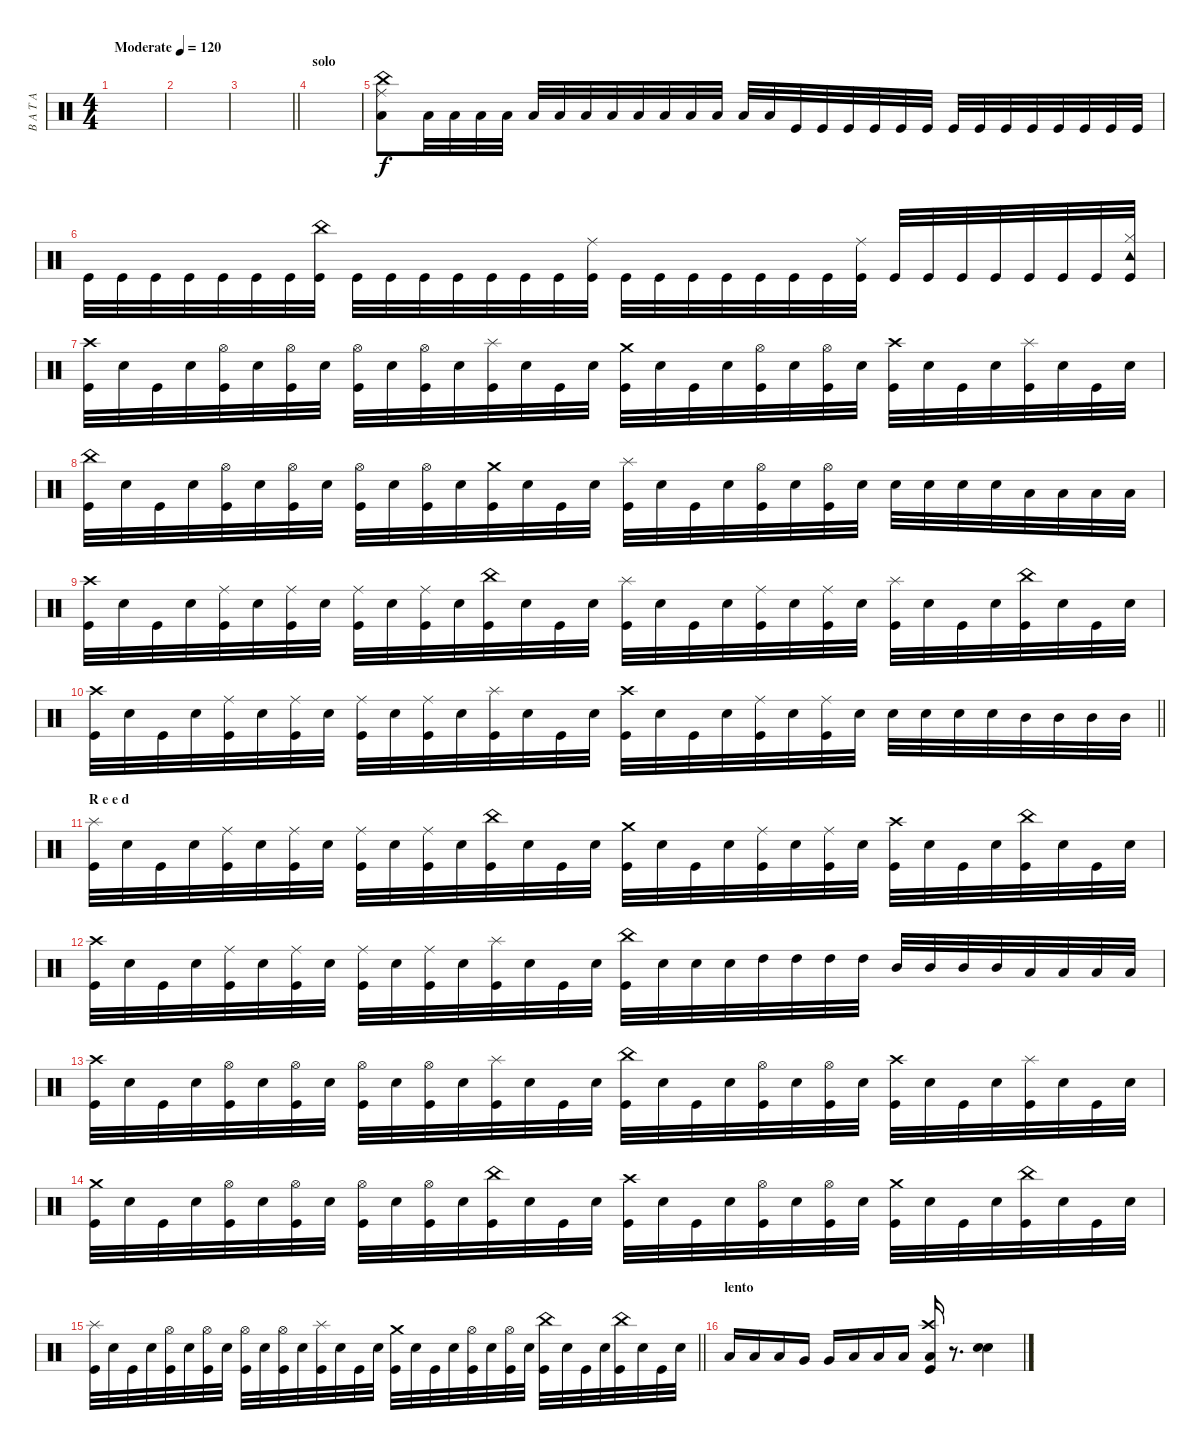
\track ("B A T A " "B A T A ") {instrument percussion}
\staff {score}
\articulation defaults
\ts (4 4)
\tempo (120 "Moderate")
\clef neutral
\ks c
|
|
\barLineRight lightlight
|
\section ("" "solo")
|
("China (hit)" "Ride (middle)" "Low Floor Tom (hit)").8 "Low Floor Tom (hit)".32 "Low Floor Tom (hit)".32 "Low Floor Tom (hit)".32 "Low Floor Tom (hit)".32 "Low Floor Tom (hit)".32 "Low Floor Tom (hit)".32 "Low Floor Tom (hit)".32 "Low Floor Tom (hit)".32 "Low Floor Tom (hit)".32 "Low Floor Tom (hit)".32 "Low Floor Tom (hit)".32 "Low Floor Tom (hit)".32 "Low Floor Tom (hit)".32 "Low Floor Tom (hit)".32 "Kick (hit)".32 "Kick (hit)".32 "Kick (hit)".32 "Kick (hit)".32 "Kick (hit)".32 "Kick (hit)".32 "Kick (hit)".32 "Kick (hit)".32 "Kick (hit)".32 "Kick (hit)".32 "Kick (hit)".32 "Kick (hit)".32 "Kick (hit)".32 "Kick (hit)".32 |
"Kick (hit)".32 "Kick (hit)".32 "Kick (hit)".32 "Kick (hit)".32 "Kick (hit)".32 "Kick (hit)".32 "Kick (hit)".32 ("China (hit)" "Kick (hit)").32 "Kick (hit)".32 "Kick (hit)".32 "Kick (hit)".32 "Kick (hit)".32 "Kick (hit)".32 "Kick (hit)".32 "Kick (hit)".32 ("Ride (middle)" "Kick (hit)").32 "Kick (hit)".32 "Kick (hit)".32 "Kick (hit)".32 "Kick (hit)".32 "Kick (hit)".32 "Kick (hit)".32 "Kick (hit)".32 ("Ride (middle)" "Kick (hit)").32 "Kick (hit)".32 "Kick (hit)".32 "Kick (hit)".32 "Kick (hit)".32 "Kick (hit)".32 "Kick (hit)".32 "Kick (hit)".32 ("Hi-Hat (closed)" "Tambourine (hit)" "Kick (hit)").32 |
("Crash high (hit)" "Kick (hit)").32 "Electric Snare (hit)".32 "Kick (hit)".32 "Electric Snare (hit)".32 ("Hi-Hat (open)" "Kick (hit)").32 "Electric Snare (hit)".32 ("Hi-Hat (open)" "Kick (hit)").32 "Electric Snare (hit)".32 ("Hi-Hat (open)" "Kick (hit)").32 "Electric Snare (hit)".32 ("Hi-Hat (open)" "Kick (hit)").32 "Electric Snare (hit)".32 ("Splash (hit)" "Kick (hit)").32 "Electric Snare (hit)".32 "Kick (hit)".32 "Electric Snare (hit)".32 ("Crash medium (hit)" "Kick (hit)").32 "Electric Snare (hit)".32 "Kick (hit)".32 "Electric Snare (hit)".32 ("Hi-Hat (open)" "Kick (hit)").32 "Electric Snare (hit)".32 ("Hi-Hat (open)" "Kick (hit)").32 "Electric Snare (hit)".32 ("Crash high (hit)" "Kick (hit)").32 "Electric Snare (hit)".32 "Kick (hit)".32 "Electric Snare (hit)".32 ("Splash (hit)" "Kick (hit)").32 "Electric Snare (hit)".32 "Kick (hit)".32 "Electric Snare (hit)".32 |
("China (hit)" "Kick (hit)").32 "Electric Snare (hit)".32 "Kick (hit)".32 "Electric Snare (hit)".32 ("Hi-Hat (open)" "Kick (hit)").32 "Electric Snare (hit)".32 ("Hi-Hat (open)" "Kick (hit)").32 "Electric Snare (hit)".32 ("Hi-Hat (open)" "Kick (hit)").32 "Electric Snare (hit)".32 ("Hi-Hat (open)" "Kick (hit)").32 "Electric Snare (hit)".32 ("Crash medium (hit)" "Kick (hit)").32 "Electric Snare (hit)".32 "Kick (hit)".32 "Electric Snare (hit)".32 ("Splash (hit)" "Kick (hit)").32 "Electric Snare (hit)".32 "Kick (hit)".32 "Electric Snare (hit)".32 ("Hi-Hat (open)" "Kick (hit)").32 "Electric Snare (hit)".32 ("Hi-Hat (open)" "Kick (hit)").32 "Electric Snare (hit)".32 "Electric Snare (hit)".32 "Electric Snare (hit)".32 "Electric Snare (hit)".32 "Electric Snare (hit)".32 "Low Tom (hit)".32 "Low Tom (hit)".32 "Low Tom (hit)".32 "Low Tom (hit)".32 |
("Crash high (hit)" "Kick (hit)").32 "Electric Snare (hit)".32 "Kick (hit)".32 "Electric Snare (hit)".32 ("Ride (middle)" "Kick (hit)").32 "Electric Snare (hit)".32 ("Ride (middle)" "Kick (hit)").32 "Electric Snare (hit)".32 ("Ride (middle)" "Kick (hit)").32 "Electric Snare (hit)".32 ("Ride (middle)" "Kick (hit)").32 "Electric Snare (hit)".32 ("China (hit)" "Kick (hit)").32 "Electric Snare (hit)".32 "Kick (hit)".32 "Electric Snare (hit)".32 ("Splash (hit)" "Kick (hit)").32 "Electric Snare (hit)".32 "Kick (hit)".32 "Electric Snare (hit)".32 ("Ride (middle)" "Kick (hit)").32 "Electric Snare (hit)".32 ("Ride (middle)" "Kick (hit)").32 "Electric Snare (hit)".32 ("Splash (hit)" "Kick (hit)").32 "Electric Snare (hit)".32 "Kick (hit)".32 "Electric Snare (hit)".32 ("China (hit)" "Kick (hit)").32 "Electric Snare (hit)".32 "Kick (hit)".32 "Electric Snare (hit)".32 |
\barLineRight lightlight
("Crash high (hit)" "Kick (hit)").32 "Electric Snare (hit)".32 "Kick (hit)".32 "Electric Snare (hit)".32 ("Ride (middle)" "Kick (hit)").32 "Electric Snare (hit)".32 ("Ride (middle)" "Kick (hit)").32 "Electric Snare (hit)".32 ("Ride (middle)" "Kick (hit)").32 "Electric Snare (hit)".32 ("Ride (middle)" "Kick (hit)").32 "Electric Snare (hit)".32 ("Splash (hit)" "Kick (hit)").32 "Electric Snare (hit)".32 "Kick (hit)".32 "Electric Snare (hit)".32 ("Crash high (hit)" "Kick (hit)").32 "Electric Snare (hit)".32 "Kick (hit)".32 "Electric Snare (hit)".32 ("Ride (middle)" "Kick (hit)").32 "Electric Snare (hit)".32 ("Ride (middle)" "Kick (hit)").32 "Electric Snare (hit)".32 "Electric Snare (hit)".32 "Electric Snare (hit)".32 "Electric Snare (hit)".32 "Electric Snare (hit)".32 "Mid Tom (hit)".32 "Mid Tom (hit)".32 "Mid Tom (hit)".32 "Mid Tom (hit)".32 |
\section ("" "R e e d")
("Splash (hit)" "Kick (hit)").32 "Electric Snare (hit)".32 "Kick (hit)".32 "Electric Snare (hit)".32 ("Ride (middle)" "Kick (hit)").32 "Electric Snare (hit)".32 ("Ride (middle)" "Kick (hit)").32 "Electric Snare (hit)".32 ("Ride (middle)" "Kick (hit)").32 "Electric Snare (hit)".32 ("Ride (middle)" "Kick (hit)").32 "Electric Snare (hit)".32 ("China (hit)" "Kick (hit)").32 "Electric Snare (hit)".32 "Kick (hit)".32 "Electric Snare (hit)".32 ("Crash medium (hit)" "Kick (hit)").32 "Electric Snare (hit)".32 "Kick (hit)".32 "Electric Snare (hit)".32 ("Ride (middle)" "Kick (hit)").32 "Electric Snare (hit)".32 ("Ride (middle)" "Kick (hit)").32 "Electric Snare (hit)".32 ("Crash high (hit)" "Kick (hit)").32 "Electric Snare (hit)".32 "Kick (hit)".32 "Electric Snare (hit)".32 ("China (hit)" "Kick (hit)").32 "Electric Snare (hit)".32 "Kick (hit)".32 "Electric Snare (hit)".32 |
("Crash high (hit)" "Kick (hit)").32 "Electric Snare (hit)".32 "Kick (hit)".32 "Electric Snare (hit)".32 ("Ride (middle)" "Kick (hit)").32 "Electric Snare (hit)".32 ("Ride (middle)" "Kick (hit)").32 "Electric Snare (hit)".32 ("Ride (middle)" "Kick (hit)").32 "Electric Snare (hit)".32 ("Ride (middle)" "Kick (hit)").32 "Electric Snare (hit)".32 ("Splash (hit)" "Kick (hit)").32 "Electric Snare (hit)".32 "Kick (hit)".32 "Electric Snare (hit)".32 ("China (hit)" "Kick (hit)").32 "Electric Snare (hit)".32 "Electric Snare (hit)".32 "Electric Snare (hit)".32 "High Tom (hit)".32 "High Tom (hit)".32 "High Tom (hit)".32 "High Tom (hit)".32 "Mid Tom (hit)".32 "Mid Tom (hit)".32 "Mid Tom (hit)".32 "Mid Tom (hit)".32 "Low Tom (hit)".32 "Low Tom (hit)".32 "Low Tom (hit)".32 "Low Tom (hit)".32 |
("Crash high (hit)" "Kick (hit)").32 "Electric Snare (hit)".32 "Kick (hit)".32 "Electric Snare (hit)".32 ("Hi-Hat (open)" "Kick (hit)").32 "Electric Snare (hit)".32 ("Hi-Hat (open)" "Kick (hit)").32 "Electric Snare (hit)".32 ("Hi-Hat (open)" "Kick (hit)").32 "Electric Snare (hit)".32 ("Hi-Hat (open)" "Kick (hit)").32 "Electric Snare (hit)".32 ("Splash (hit)" "Kick (hit)").32 "Electric Snare (hit)".32 "Kick (hit)".32 "Electric Snare (hit)".32 ("China (hit)" "Kick (hit)").32 "Electric Snare (hit)".32 "Kick (hit)".32 "Electric Snare (hit)".32 ("Hi-Hat (open)" "Kick (hit)").32 "Electric Snare (hit)".32 ("Hi-Hat (open)" "Kick (hit)").32 "Electric Snare (hit)".32 ("Crash high (hit)" "Kick (hit)").32 "Electric Snare (hit)".32 "Kick (hit)".32 "Electric Snare (hit)".32 ("Splash (hit)" "Kick (hit)").32 "Electric Snare (hit)".32 "Kick (hit)".32 "Electric Snare (hit)".32 |
("Crash medium (hit)" "Kick (hit)").32 "Electric Snare (hit)".32 "Kick (hit)".32 "Electric Snare (hit)".32 ("Hi-Hat (open)" "Kick (hit)").32 "Electric Snare (hit)".32 ("Hi-Hat (open)" "Kick (hit)").32 "Electric Snare (hit)".32 ("Hi-Hat (open)" "Kick (hit)").32 "Electric Snare (hit)".32 ("Hi-Hat (open)" "Kick (hit)").32 "Electric Snare (hit)".32 ("China (hit)" "Kick (hit)").32 "Electric Snare (hit)".32 "Kick (hit)".32 "Electric Snare (hit)".32 ("Crash high (hit)" "Kick (hit)").32 "Electric Snare (hit)".32 "Kick (hit)".32 "Electric Snare (hit)".32 ("Hi-Hat (open)" "Kick (hit)").32 "Electric Snare (hit)".32 ("Hi-Hat (open)" "Kick (hit)").32 "Electric Snare (hit)".32 ("Crash medium (hit)" "Kick (hit)").32 "Electric Snare (hit)".32 "Kick (hit)".32 "Electric Snare (hit)".32 ("China (hit)" "Kick (hit)").32 "Electric Snare (hit)".32 "Kick (hit)".32 "Electric Snare (hit)".32 |
\barLineRight lightlight
("Splash (hit)" "Kick (hit)").32 "Electric Snare (hit)".32 "Kick (hit)".32 "Electric Snare (hit)".32 ("Hi-Hat (open)" "Kick (hit)").32 "Electric Snare (hit)".32 ("Hi-Hat (open)" "Kick (hit)").32 "Electric Snare (hit)".32 ("Hi-Hat (open)" "Kick (hit)").32 "Electric Snare (hit)".32 ("Hi-Hat (open)" "Kick (hit)").32 "Electric Snare (hit)".32 ("Splash (hit)" "Kick (hit)").32 "Electric Snare (hit)".32 "Kick (hit)".32 "Electric Snare (hit)".32 ("Crash medium (hit)" "Kick (hit)").32 "Electric Snare (hit)".32 "Kick (hit)".32 "Electric Snare (hit)".32 ("Hi-Hat (open)" "Kick (hit)").32 "Electric Snare (hit)".32 ("Hi-Hat (open)" "Kick (hit)").32 "Electric Snare (hit)".32 ("China (hit)" "Kick (hit)").32 "Electric Snare (hit)".32 "Kick (hit)".32 "Electric Snare (hit)".32 ("China (hit)" "Kick (hit)").32 "Electric Snare (hit)".32 "Kick (hit)".32 "Electric Snare (hit)".32 |
\section ("" "lento")
"Low Tom (hit)".16 "Low Tom (hit)".16 "Low Tom (hit)".16 "Very Low Tom (hit)".16 "Very Low Tom (hit)".16 "Low Tom (hit)".16 "Low Tom (hit)".16 "Low Tom (hit)".16 ("Kick (hit)" "Crash high (hit)" "Low Tom (hit)").16 r.8{d} ("Electric Snare (hit)" "Electric Snare (hit)").4
